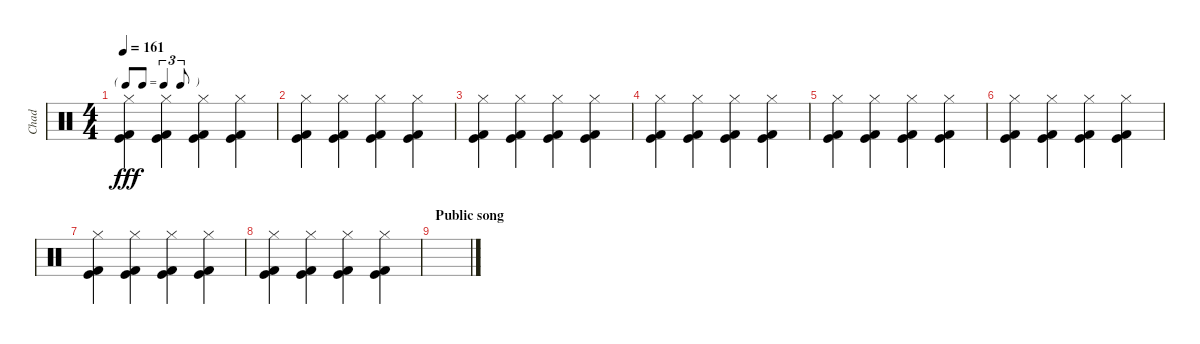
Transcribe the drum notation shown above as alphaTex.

\track ("Chad" "Chad") {instrument percussion}
\staff {score}
\articulation defaults
\ts (4 4)
\tf triplet8th
\tempo 161
\clef neutral
\ks c
("Kick (hit) 2" "Kick (hit)" "Hi-Hat (closed)").4{dy fff} ("Kick (hit) 2" "Kick (hit)" "Hi-Hat (closed)").4 ("Kick (hit) 2" "Kick (hit)" "Hi-Hat (closed)").4 ("Kick (hit) 2" "Kick (hit)" "Hi-Hat (closed)").4 |
("Kick (hit) 2" "Kick (hit)" "Hi-Hat (closed)").4 ("Kick (hit) 2" "Kick (hit)" "Hi-Hat (closed)").4 ("Kick (hit) 2" "Kick (hit)" "Hi-Hat (closed)").4 ("Kick (hit) 2" "Kick (hit)" "Hi-Hat (closed)").4 |
("Kick (hit) 2" "Kick (hit)" "Hi-Hat (closed)").4 ("Kick (hit) 2" "Kick (hit)" "Hi-Hat (closed)").4 ("Kick (hit) 2" "Kick (hit)" "Hi-Hat (closed)").4 ("Kick (hit) 2" "Kick (hit)" "Hi-Hat (closed)").4 |
("Kick (hit) 2" "Kick (hit)" "Hi-Hat (closed)").4 ("Kick (hit) 2" "Kick (hit)" "Hi-Hat (closed)").4 ("Kick (hit) 2" "Kick (hit)" "Hi-Hat (closed)").4 ("Kick (hit) 2" "Kick (hit)" "Hi-Hat (closed)").4 |
("Kick (hit) 2" "Kick (hit)" "Hi-Hat (closed)").4 ("Kick (hit) 2" "Kick (hit)" "Hi-Hat (closed)").4 ("Kick (hit) 2" "Kick (hit)" "Hi-Hat (closed)").4 ("Kick (hit) 2" "Kick (hit)" "Hi-Hat (closed)").4 |
("Kick (hit) 2" "Kick (hit)" "Hi-Hat (closed)").4 ("Kick (hit) 2" "Kick (hit)" "Hi-Hat (closed)").4 ("Kick (hit) 2" "Kick (hit)" "Hi-Hat (closed)").4 ("Kick (hit) 2" "Kick (hit)" "Hi-Hat (closed)").4 |
("Kick (hit) 2" "Kick (hit)" "Hi-Hat (closed)").4 ("Kick (hit) 2" "Kick (hit)" "Hi-Hat (closed)").4 ("Kick (hit) 2" "Kick (hit)" "Hi-Hat (closed)").4 ("Kick (hit) 2" "Kick (hit)" "Hi-Hat (closed)").4 |
("Kick (hit) 2" "Kick (hit)" "Hi-Hat (closed)").4 ("Kick (hit) 2" "Kick (hit)" "Hi-Hat (closed)").4 ("Kick (hit) 2" "Kick (hit)" "Hi-Hat (closed)").4 ("Kick (hit) 2" "Kick (hit)" "Hi-Hat (closed)").4 |
\section ("" "Public song")
